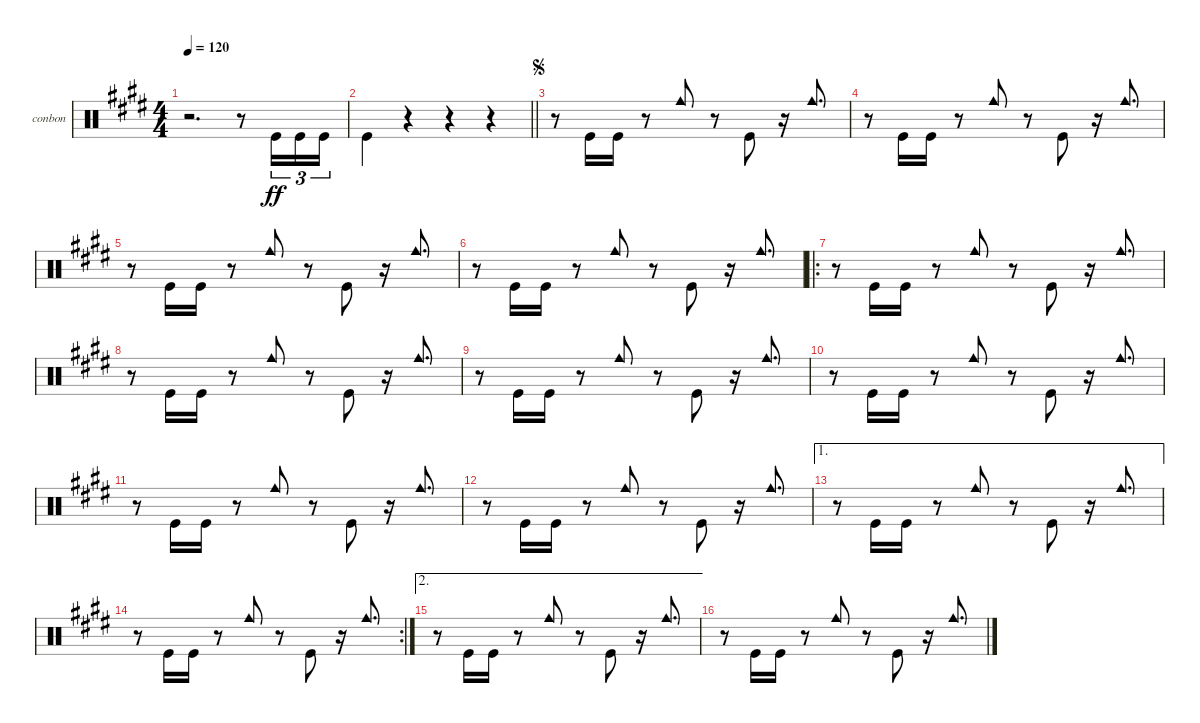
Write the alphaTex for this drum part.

\defaultSystemsLayout 4
\bracketExtendMode groupsimilarinstruments
\firstSystemTrackNameOrientation horizontal
\otherSystemsTrackNameOrientation horizontal
\track ("Bongos N Congas" "conbon") {instrument percussion}
\staff {score}
\articulation defaults
\ts (4 4)
\tempo 120
\clef neutral
\scale
0.538462
\ks e
r.2{d dy ff} r.8 "Kick (hit)".16{tu (3 2) beam invert} "Kick (hit)".16{tu (3 2)} "Kick (hit)".16{tu (3 2)} |
\scale
0.230769
\barLineRight lightlight "Kick (hit)".4{beam invert}
r.4 r.4 r.4 |
\jump segno
\scale
0.230769 r.8{beam invert} "Kick (hit)".16{beam invert} "Kick (hit)".16 r.8{beam invert} "Cowbell medium (hit)".8{beam invert} r.8{beam invert} "Kick (hit)".8{beam invert} r.16{beam invert} "Cowbell medium (hit)".8{d beam invert} |
\scale
0.333333 r.8{beam invert} "Kick (hit)".16{beam invert} "Kick (hit)".16 r.8{beam invert} "Cowbell medium (hit)".8{beam invert} r.8{beam invert} "Kick (hit)".8{beam invert} r.16{beam invert} "Cowbell medium (hit)".8{d beam invert} |
\scale
0.333333 r.8{beam invert} "Kick (hit)".16{beam invert} "Kick (hit)".16 r.8{beam invert} "Cowbell medium (hit)".8{beam invert} r.8{beam invert} "Kick (hit)".8{beam invert} r.16{beam invert} "Cowbell medium (hit)".8{d beam invert} |
\scale
0.333333 r.8{beam invert} "Kick (hit)".16{beam invert} "Kick (hit)".16 r.8{beam invert} "Cowbell medium (hit)".8{beam invert} r.8{beam invert} "Kick (hit)".8{beam invert} r.16{beam invert} "Cowbell medium (hit)".8{d beam invert} |
\ro
\scale
0.377049 r.8{beam invert} "Kick (hit)".16{beam invert} "Kick (hit)".16 r.8{beam invert} "Cowbell medium (hit)".8{beam invert} r.8{beam invert} "Kick (hit)".8{beam invert} r.16{beam invert} "Cowbell medium (hit)".8{d beam invert} |
\scale
0.311475 r.8{beam invert} "Kick (hit)".16{beam invert} "Kick (hit)".16 r.8{beam invert} "Cowbell medium (hit)".8{beam invert} r.8{beam invert} "Kick (hit)".8{beam invert} r.16{beam invert} "Cowbell medium (hit)".8{d beam invert} |
\scale
0.311475 r.8{beam invert} "Kick (hit)".16{beam invert} "Kick (hit)".16 r.8{beam invert} "Cowbell medium (hit)".8{beam invert} r.8{beam invert} "Kick (hit)".8{beam invert} r.16{beam invert} "Cowbell medium (hit)".8{d beam invert} |
\scale
0.333333 r.8{beam invert} "Kick (hit)".16{beam invert} "Kick (hit)".16 r.8{beam invert} "Cowbell medium (hit)".8{beam invert} r.8{beam invert} "Kick (hit)".8{beam invert} r.16{beam invert} "Cowbell medium (hit)".8{d beam invert} |
\scale
0.333333 r.8{beam invert} "Kick (hit)".16{beam invert} "Kick (hit)".16 r.8{beam invert} "Cowbell medium (hit)".8{beam invert} r.8{beam invert} "Kick (hit)".8{beam invert} r.16{beam invert} "Cowbell medium (hit)".8{d beam invert} |
\scale
0.333333 r.8{beam invert} "Kick (hit)".16{beam invert} "Kick (hit)".16 r.8{beam invert} "Cowbell medium (hit)".8{beam invert} r.8{beam invert} "Kick (hit)".8{beam invert} r.16{beam invert} "Cowbell medium (hit)".8{d beam invert} |
\ae 1
\scale
0.322034 r.8{beam invert} "Kick (hit)".16{beam invert} "Kick (hit)".16 r.8{beam invert} "Cowbell medium (hit)".8{beam invert} r.8{beam invert} "Kick (hit)".8{beam invert} r.16{beam invert} "Cowbell medium (hit)".8{d beam invert} |
\rc 2
\scale
0.355932 r.8{beam invert} "Kick (hit)".16{beam invert} "Kick (hit)".16 r.8{beam invert} "Cowbell medium (hit)".8{beam invert} r.8{beam invert} "Kick (hit)".8{beam invert} r.16{beam invert} "Cowbell medium (hit)".8{d beam invert} |
\ae 2
\scale
0.322034 r.8{beam invert} "Kick (hit)".16{beam invert} "Kick (hit)".16 r.8{beam invert} "Cowbell medium (hit)".8{beam invert} r.8{beam invert} "Kick (hit)".8{beam invert} r.16{beam invert} "Cowbell medium (hit)".8{d beam invert} |
\scale
0.333333 r.8{beam invert} "Kick (hit)".16{beam invert} "Kick (hit)".16 r.8{beam invert} "Cowbell medium (hit)".8{beam invert} r.8{beam invert} "Kick (hit)".8{beam invert} r.16{beam invert} "Cowbell medium (hit)".8{d beam invert}
